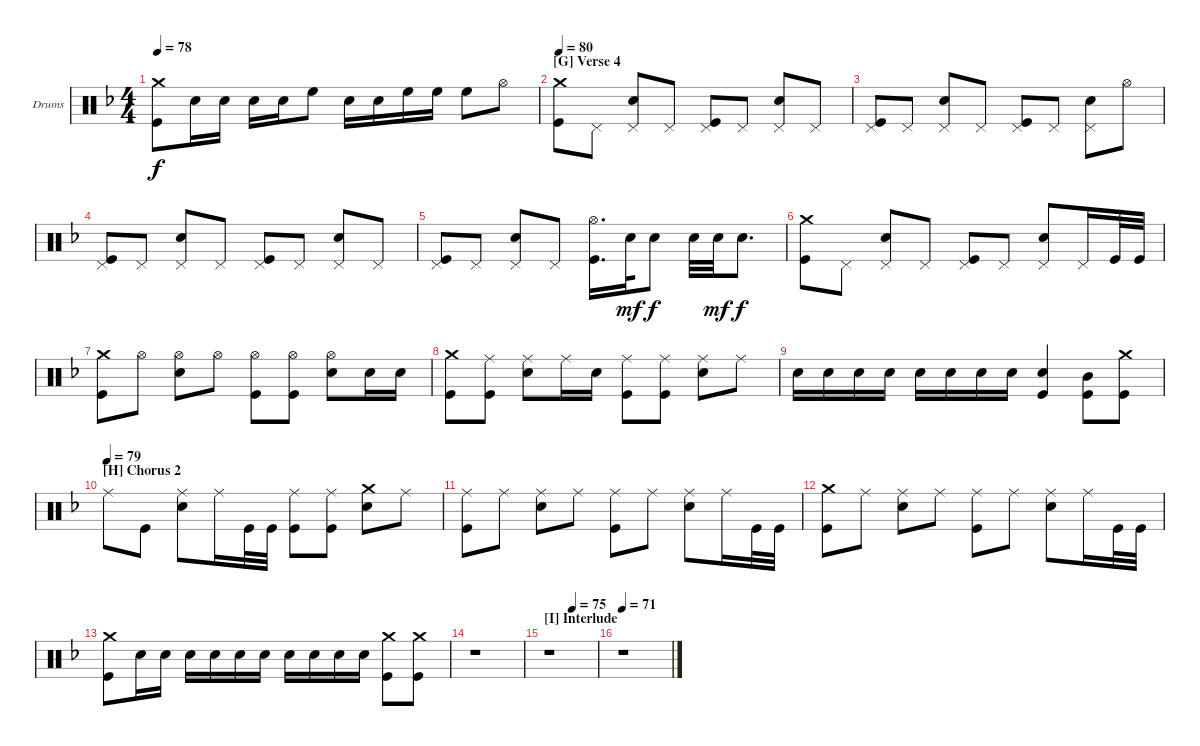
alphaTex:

\bracketExtendMode groupsimilarinstruments
\firstSystemTrackNameOrientation horizontal
\otherSystemsTrackNameOrientation horizontal
\track ("Vinny Appice" "Drums") {instrument percussion}
\staff {score}
\articulation defaults
\ts (4 4)
\tempo 78
\clef neutral
\ks dminor
("Crash medium (hit)" "Kick (hit)").8{dy f} "Snare (hit) 2".16 "Snare (hit) 2".16 "Snare (hit) 2".16 "Snare (hit) 2".16 "High Floor Tom (hit)".8 "Snare (hit) 2".16 "Snare (hit) 2".16 "High Floor Tom (hit)".16 "High Floor Tom (hit)".16 "High Floor Tom (hit)".8 "Hi-Hat (open)".8 |
\section ("G" "Verse 4")
\tempo 80
("Crash medium (hit)" "Kick (hit)").8 "Pedal Hi-Hat (hit)".8 ("Pedal Hi-Hat (hit)" "Snare (hit) 2").8 "Pedal Hi-Hat (hit)".8 ("Pedal Hi-Hat (hit)" "Kick (hit)").8 "Pedal Hi-Hat (hit)".8 ("Pedal Hi-Hat (hit)" "Snare (hit) 2").8 "Pedal Hi-Hat (hit)".8 |
("Pedal Hi-Hat (hit)" "Kick (hit)").8 "Pedal Hi-Hat (hit)".8 ("Pedal Hi-Hat (hit)" "Snare (hit) 2").8 "Pedal Hi-Hat (hit)".8 ("Pedal Hi-Hat (hit)" "Kick (hit)").8 "Pedal Hi-Hat (hit)".8 ("Pedal Hi-Hat (hit)" "Snare (hit) 2").8 "Hi-Hat (open)".8 |
("Pedal Hi-Hat (hit)" "Kick (hit)").8 "Pedal Hi-Hat (hit)".8 ("Pedal Hi-Hat (hit)" "Snare (hit) 2").8 "Pedal Hi-Hat (hit)".8 ("Pedal Hi-Hat (hit)" "Kick (hit)").8 "Pedal Hi-Hat (hit)".8 ("Pedal Hi-Hat (hit)" "Snare (hit) 2").8 "Pedal Hi-Hat (hit)".8 |
("Pedal Hi-Hat (hit)" "Kick (hit)").8 "Pedal Hi-Hat (hit)".8 ("Pedal Hi-Hat (hit)" "Snare (hit) 2").8 "Pedal Hi-Hat (hit)".8 ("Hi-Hat (open)" "Kick (hit)").16{d} "Snare (hit) 2".32{dy mf} "Snare (hit) 2".8{dy f} "Snare (hit) 2".32 "Snare (hit) 2".32{dy mf} "Snare (hit) 2".8{d dy f} |
("Crash medium (hit)" "Kick (hit)").8 "Pedal Hi-Hat (hit)".8 ("Pedal Hi-Hat (hit)" "Snare (hit) 2").8 "Pedal Hi-Hat (hit)".8 ("Pedal Hi-Hat (hit)" "Kick (hit)").8 "Pedal Hi-Hat (hit)".8 ("Pedal Hi-Hat (hit)" "Snare (hit) 2").8 "Pedal Hi-Hat (hit)".16 "Kick (hit)".32 "Kick (hit)".32 |
("Crash medium (hit)" "Kick (hit)").8 "Hi-Hat (open)".8 ("Hi-Hat (open)" "Snare (hit) 2").8 "Hi-Hat (open)".8 ("Hi-Hat (open)" "Kick (hit)").8 ("Hi-Hat (open)" "Kick (hit)").8 ("Hi-Hat (open)" "Snare (hit) 2").8 "Snare (hit) 2".16 "Snare (hit) 2".16 |
("Crash medium (hit)" "Kick (hit)").8 ("Ride (middle)" "Kick (hit)").8 ("Ride (middle)" "Snare (hit) 2").8 "Ride (middle)".16 "Snare (hit) 2".16 ("Ride (middle)" "Kick (hit)").8 ("Ride (middle)" "Kick (hit)").8 ("Ride (middle)" "Snare (hit) 2").8 "Ride (middle)".8 |
"Snare (hit) 2".16 "Snare (hit) 2".16 "Snare (hit) 2".16 "Snare (hit) 2".16 "Snare (hit) 2".16 "Snare (hit) 2".16 "Snare (hit) 2".16 "Snare (hit) 2".16 ("Snare (hit) 2" "Kick (hit)").4 ("Mid Tom (hit)" "Kick (hit)").8 ("Crash medium (hit)" "Kick (hit)").8 |
\section ("H" "Chorus 2")
\tempo (79)
"Ride (middle)".8 "Kick (hit)".8 ("Ride (middle)" "Snare (hit) 2").8 "Ride (middle)".16 "Kick (hit)".32 "Kick (hit)".32 ("Ride (middle)" "Kick (hit)").8 ("Ride (middle)" "Kick (hit)").8 ("Crash medium (hit)" "Snare (hit) 2").8 "Ride (middle)".8 |
("Ride (middle)" "Kick (hit)").8 "Ride (middle)".8 ("Ride (middle)" "Snare (hit) 2").8 "Ride (middle)".8 ("Ride (middle)" "Kick (hit)").8 "Ride (middle)".8 ("Ride (middle)" "Snare (hit) 2").8 "Ride (middle)".16 "Kick (hit)".32 "Kick (hit)".32 |
("Crash medium (hit)" "Kick (hit)").8 "Ride (middle)".8 ("Ride (middle)" "Snare (hit) 2").8 "Ride (middle)".8 ("Ride (middle)" "Kick (hit)").8 "Ride (middle)".8 ("Ride (middle)" "Snare (hit) 2").8 "Ride (middle)".16 "Kick (hit)".32 "Kick (hit)".32 |
("Crash medium (hit)" "Kick (hit)").8 "Snare (hit) 2".16 "Snare (hit) 2".16 "Snare (hit) 2".16 "Snare (hit) 2".16 "Snare (hit) 2".16 "Snare (hit) 2".16 "Snare (hit) 2".16 "Snare (hit) 2".16 "Snare (hit) 2".16 "Snare (hit) 2".16 ("Crash medium (hit)" "Kick (hit)").8 ("Crash medium (hit)" "Kick (hit)").8 |
r.1 |
\section ("I" "Interlude")
\tempo (75 0.49375)
r.1 |
\tempo 71
r.1
